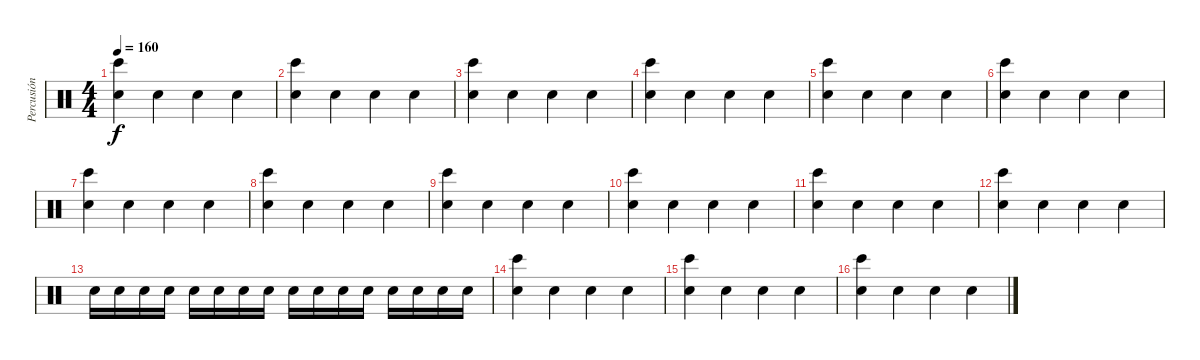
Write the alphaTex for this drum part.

\track ("Percusión" "Percusión") {instrument percussion}
\staff {score}
\articulation defaults
\ts (4 4)
\tempo 160
\clef neutral
\ks c
("Electric Snare (hit)" "Bongo High (hit)").4{dy f} "Electric Snare (hit)".4 "Electric Snare (hit)".4 "Electric Snare (hit)".4 |
("Electric Snare (hit)" "Bongo High (hit)").4 "Electric Snare (hit)".4 "Electric Snare (hit)".4 "Electric Snare (hit)".4 |
("Electric Snare (hit)" "Bongo High (hit)").4 "Electric Snare (hit)".4 "Electric Snare (hit)".4 "Electric Snare (hit)".4 |
("Electric Snare (hit)" "Bongo High (hit)").4 "Electric Snare (hit)".4 "Electric Snare (hit)".4 "Electric Snare (hit)".4 |
("Electric Snare (hit)" "Bongo High (hit)").4 "Electric Snare (hit)".4 "Electric Snare (hit)".4 "Electric Snare (hit)".4 |
("Electric Snare (hit)" "Bongo High (hit)").4 "Electric Snare (hit)".4 "Electric Snare (hit)".4 "Electric Snare (hit)".4 |
("Electric Snare (hit)" "Bongo High (hit)").4 "Electric Snare (hit)".4 "Electric Snare (hit)".4 "Electric Snare (hit)".4 |
("Electric Snare (hit)" "Bongo High (hit)").4 "Electric Snare (hit)".4 "Electric Snare (hit)".4 "Electric Snare (hit)".4 |
("Electric Snare (hit)" "Bongo High (hit)").4 "Electric Snare (hit)".4 "Electric Snare (hit)".4 "Electric Snare (hit)".4 |
("Electric Snare (hit)" "Bongo High (hit)").4 "Electric Snare (hit)".4 "Electric Snare (hit)".4 "Electric Snare (hit)".4 |
("Electric Snare (hit)" "Bongo High (hit)").4 "Electric Snare (hit)".4 "Electric Snare (hit)".4 "Electric Snare (hit)".4 |
("Electric Snare (hit)" "Bongo High (hit)").4 "Electric Snare (hit)".4 "Electric Snare (hit)".4 "Electric Snare (hit)".4 |
"Electric Snare (hit)".16 "Electric Snare (hit)".16 "Electric Snare (hit)".16 "Electric Snare (hit)".16 "Electric Snare (hit)".16 "Electric Snare (hit)".16 "Electric Snare (hit)".16 "Electric Snare (hit)".16 "Electric Snare (hit)".16 "Electric Snare (hit)".16 "Electric Snare (hit)".16 "Electric Snare (hit)".16 "Electric Snare (hit)".16 "Electric Snare (hit)".16 "Electric Snare (hit)".16 "Electric Snare (hit)".16 |
("Electric Snare (hit)" "Bongo High (hit)").4 "Electric Snare (hit)".4 "Electric Snare (hit)".4 "Electric Snare (hit)".4 |
("Electric Snare (hit)" "Bongo High (hit)").4 "Electric Snare (hit)".4 "Electric Snare (hit)".4 "Electric Snare (hit)".4 |
("Electric Snare (hit)" "Bongo High (hit)").4 "Electric Snare (hit)".4 "Electric Snare (hit)".4 "Electric Snare (hit)".4
